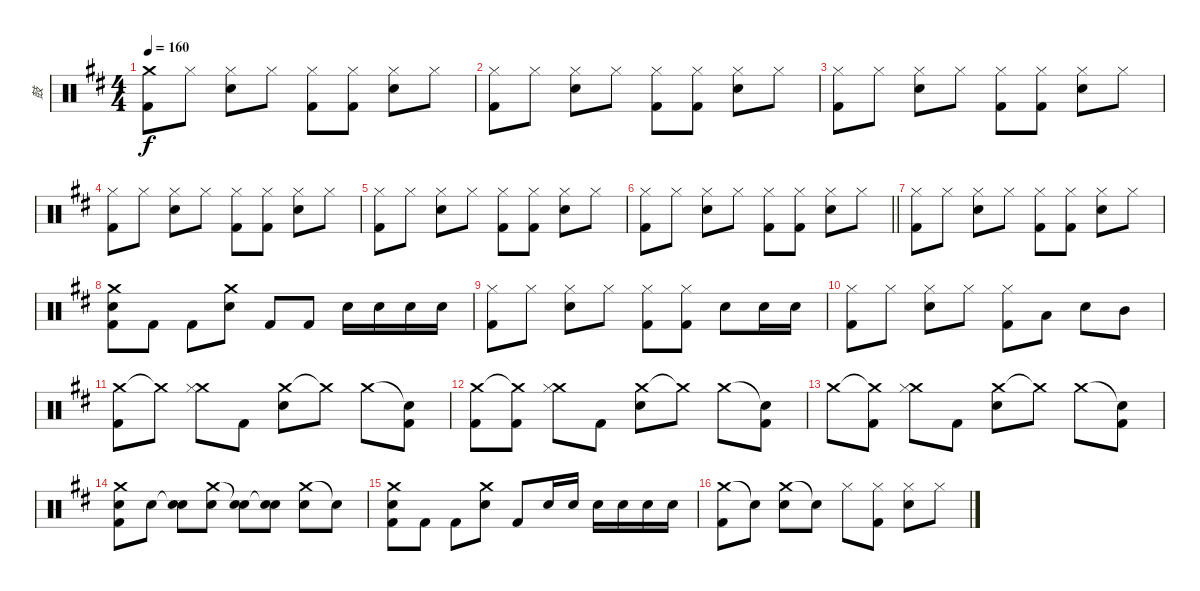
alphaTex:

\track ("鼓" "鼓") {instrument percussion}
\staff {score}
\articulation defaults
\ts (4 4)
\tempo 160
\clef neutral
\ks d
("Crash medium (hit)" "Kick (hit) 2").8{dy f} "Hi-Hat (closed)".8 ("Hi-Hat (closed)" "Electric Snare (hit)").8 "Hi-Hat (closed)".8 ("Hi-Hat (closed)" "Kick (hit) 2").8 ("Hi-Hat (closed)" "Kick (hit) 2").8 ("Hi-Hat (closed)" "Electric Snare (hit)").8 "Hi-Hat (closed)".8 |
("Hi-Hat (closed)" "Kick (hit) 2").8 "Hi-Hat (closed)".8 ("Hi-Hat (closed)" "Electric Snare (hit)").8 "Hi-Hat (closed)".8 ("Hi-Hat (closed)" "Kick (hit) 2").8 ("Hi-Hat (closed)" "Kick (hit) 2").8 ("Hi-Hat (closed)" "Electric Snare (hit)").8 "Hi-Hat (closed)".8 |
("Hi-Hat (closed)" "Kick (hit) 2").8 "Hi-Hat (closed)".8 ("Hi-Hat (closed)" "Electric Snare (hit)").8 "Hi-Hat (closed)".8 ("Hi-Hat (closed)" "Kick (hit) 2").8 ("Hi-Hat (closed)" "Kick (hit) 2").8 ("Hi-Hat (closed)" "Electric Snare (hit)").8 "Hi-Hat (closed)".8 |
("Hi-Hat (closed)" "Kick (hit) 2").8 "Hi-Hat (closed)".8 ("Hi-Hat (closed)" "Electric Snare (hit)").8 "Hi-Hat (closed)".8 ("Hi-Hat (closed)" "Kick (hit) 2").8 ("Hi-Hat (closed)" "Kick (hit) 2").8 ("Hi-Hat (closed)" "Electric Snare (hit)").8 "Hi-Hat (closed)".8 |
("Hi-Hat (closed)" "Kick (hit) 2").8 "Hi-Hat (closed)".8 ("Hi-Hat (closed)" "Electric Snare (hit)").8 "Hi-Hat (closed)".8 ("Hi-Hat (closed)" "Kick (hit) 2").8 ("Hi-Hat (closed)" "Kick (hit) 2").8 ("Hi-Hat (closed)" "Electric Snare (hit)").8 "Hi-Hat (closed)".8 |
\barLineRight lightlight
("Hi-Hat (closed)" "Kick (hit) 2").8 "Hi-Hat (closed)".8 ("Hi-Hat (closed)" "Electric Snare (hit)").8 "Hi-Hat (closed)".8 ("Hi-Hat (closed)" "Kick (hit) 2").8 ("Hi-Hat (closed)" "Kick (hit) 2").8 ("Hi-Hat (closed)" "Electric Snare (hit)").8 "Hi-Hat (closed)".8 |
("Hi-Hat (closed)" "Kick (hit) 2").8 "Hi-Hat (closed)".8 ("Hi-Hat (closed)" "Electric Snare (hit)").8 "Hi-Hat (closed)".8 ("Hi-Hat (closed)" "Kick (hit) 2").8 ("Hi-Hat (closed)" "Kick (hit) 2").8 ("Hi-Hat (closed)" "Electric Snare (hit)").8 "Hi-Hat (closed)".8 |
("Crash medium (hit)" "Electric Snare (hit)" "Kick (hit) 2").8 "Kick (hit) 2".8 "Kick (hit) 2".8 ("Crash medium (hit)" "Electric Snare (hit)").8 "Kick (hit) 2".8 "Kick (hit) 2".8 "Electric Snare (hit)".16 "Electric Snare (hit)".16 "Electric Snare (hit)".16 "Electric Snare (hit)".16 |
("Hi-Hat (closed)" "Kick (hit) 2").8 "Hi-Hat (closed)".8 ("Hi-Hat (closed)" "Electric Snare (hit)").8 "Hi-Hat (closed)".8 ("Hi-Hat (closed)" "Kick (hit) 2").8 ("Hi-Hat (closed)" "Kick (hit) 2").8 "Electric Snare (hit)".8 "Electric Snare (hit)".16 "Electric Snare (hit)".16 |
("Hi-Hat (closed)" "Kick (hit) 2").8 "Hi-Hat (closed)".8 ("Hi-Hat (closed)" "Electric Snare (hit)").8 "Hi-Hat (closed)".8 ("Hi-Hat (closed)" "Kick (hit) 2").8 "Low Tom (hit)".8 "Electric Snare (hit)".8 "Mid Tom (hit)".8 |
("Crash medium (hit)" "Kick (hit) 2").8 "Crash medium (hit)"{t}.8 ("Crash medium (hit)" "Hi-Hat (closed)").8 "Kick (hit) 2".8 ("Crash medium (hit)" "Electric Snare (hit)").8 "Crash medium (hit)"{t}.8 "Crash medium (hit)".8 ("Snare (hit)"{t} "Kick (hit) 2").8 |
("Crash medium (hit)" "Kick (hit) 2").8 ("Crash medium (hit)"{t} "Kick (hit) 2").8 ("Crash medium (hit)" "Hi-Hat (closed)").8 "Kick (hit) 2".8 ("Crash medium (hit)" "Electric Snare (hit)").8 "Crash medium (hit)"{t}.8 "Crash medium (hit)".8 ("Snare (hit)"{t} "Kick (hit) 2").8 |
"Crash medium (hit)".8 ("Crash medium (hit)"{t} "Kick (hit) 2").8 ("Crash medium (hit)" "Hi-Hat (closed)").8 "Kick (hit) 2".8 ("Crash medium (hit)" "Electric Snare (hit)").8 "Crash medium (hit)"{t}.8 "Crash medium (hit)".8 ("Snare (hit)"{t} "Kick (hit) 2").8 |
("Crash medium (hit)" "Electric Snare (hit)" "Kick (hit) 2").8 "Electric Snare (hit)".8 ("Snare (hit)"{t} "Electric Snare (hit)").8 ("Crash medium (hit)" "Electric Snare (hit)").8 ("Snare (hit)"{t} "Electric Snare (hit)").8 ("Snare (hit)"{t} "Electric Snare (hit)").8 ("Crash medium (hit)" "Electric Snare (hit)").8 "Snare (hit)"{t}.8 |
("Crash medium (hit)" "Electric Snare (hit)" "Kick (hit) 2").8 "Kick (hit) 2".8 "Kick (hit) 2".8 ("Crash medium (hit)" "Electric Snare (hit)").8 "Kick (hit) 2".8 "Electric Snare (hit)".16 "Electric Snare (hit)".16 "Electric Snare (hit)".16 "Electric Snare (hit)".16 "Electric Snare (hit)".16 "Electric Snare (hit)".16 |
("Crash medium (hit)" "Kick (hit) 2").8 "Snare (hit)"{t}.8 ("Crash medium (hit)" "Electric Snare (hit)").8 "Snare (hit)"{t}.8 "Hi-Hat (closed)".8 ("Hi-Hat (closed)" "Kick (hit) 2").8 ("Hi-Hat (closed)" "Electric Snare (hit)").8 "Hi-Hat (closed)".8
